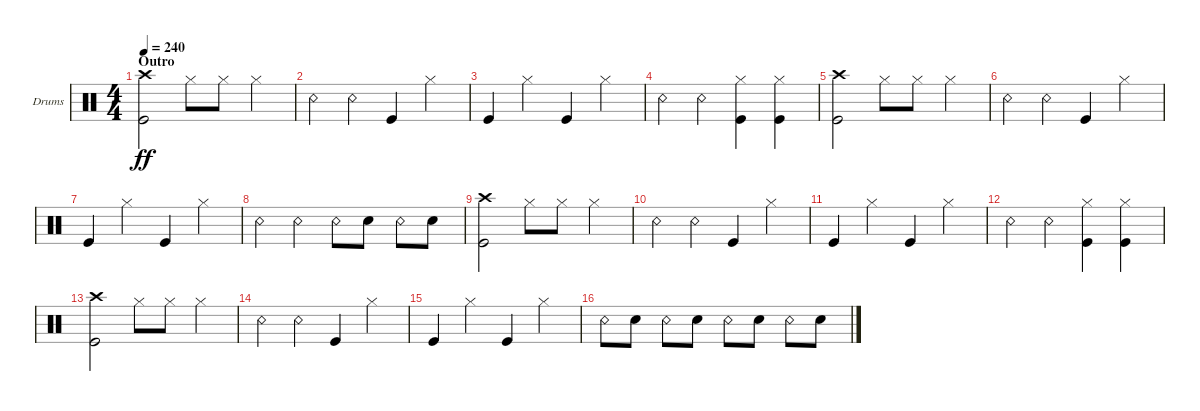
\defaultSystemsLayout 4
\bracketExtendMode groupsimilarinstruments
\firstSystemTrackNameOrientation horizontal
\otherSystemsTrackNameOrientation horizontal
\track ("Drumkit" "Drums") {instrument percussion}
\staff {score}
\articulation defaults
\ts (4 4)
\section ("" "Outro")
\tempo 240
\clef neutral
\ks c
("Kick (hit)" "Crash high (hit)").2{dy ff} "Hi-Hat (closed)".8 "Hi-Hat (closed)".8 "Hi-Hat (closed)".4 |
"Snare (rim shot)".4 "Snare (rim shot)".4 "Kick (hit)".4 "Hi-Hat (closed)".4 |
"Kick (hit)".4 "Hi-Hat (closed)".4 "Kick (hit)".4 "Hi-Hat (closed)".4 |
"Snare (rim shot)".4 "Snare (rim shot)".4 ("Kick (hit)" "Hi-Hat (closed)").4 ("Kick (hit)" "Hi-Hat (closed)").4 |
("Kick (hit)" "Crash high (hit)").2 "Hi-Hat (closed)".8 "Hi-Hat (closed)".8 "Hi-Hat (closed)".4 |
"Snare (rim shot)".4 "Snare (rim shot)".4 "Kick (hit)".4 "Hi-Hat (closed)".4 |
"Kick (hit)".4 "Hi-Hat (closed)".4 "Kick (hit)".4 "Hi-Hat (closed)".4 |
"Snare (rim shot)".4 "Snare (rim shot)".4 "Snare (rim shot)".8 "Snare (hit) 2".8 "Snare (rim shot)".8 "Snare (hit) 2".8 |
("Kick (hit)" "Crash high (hit)").2 "Hi-Hat (closed)".8 "Hi-Hat (closed)".8 "Hi-Hat (closed)".4 |
"Snare (rim shot)".4 "Snare (rim shot)".4 "Kick (hit)".4 "Hi-Hat (closed)".4 |
"Kick (hit)".4 "Hi-Hat (closed)".4 "Kick (hit)".4 "Hi-Hat (closed)".4 |
"Snare (rim shot)".4 "Snare (rim shot)".4 ("Kick (hit)" "Hi-Hat (closed)").4 ("Kick (hit)" "Hi-Hat (closed)").4 |
("Kick (hit)" "Crash high (hit)").2 "Hi-Hat (closed)".8 "Hi-Hat (closed)".8 "Hi-Hat (closed)".4 |
"Snare (rim shot)".4 "Snare (rim shot)".4 "Kick (hit)".4 "Hi-Hat (closed)".4 |
"Kick (hit)".4 "Hi-Hat (closed)".4 "Kick (hit)".4 "Hi-Hat (closed)".4 |
"Snare (rim shot)".8 "Snare (hit) 2".8 "Snare (rim shot)".8 "Snare (hit) 2".8 "Snare (rim shot)".8 "Snare (hit) 2".8 "Snare (rim shot)".8 "Snare (hit) 2".8
